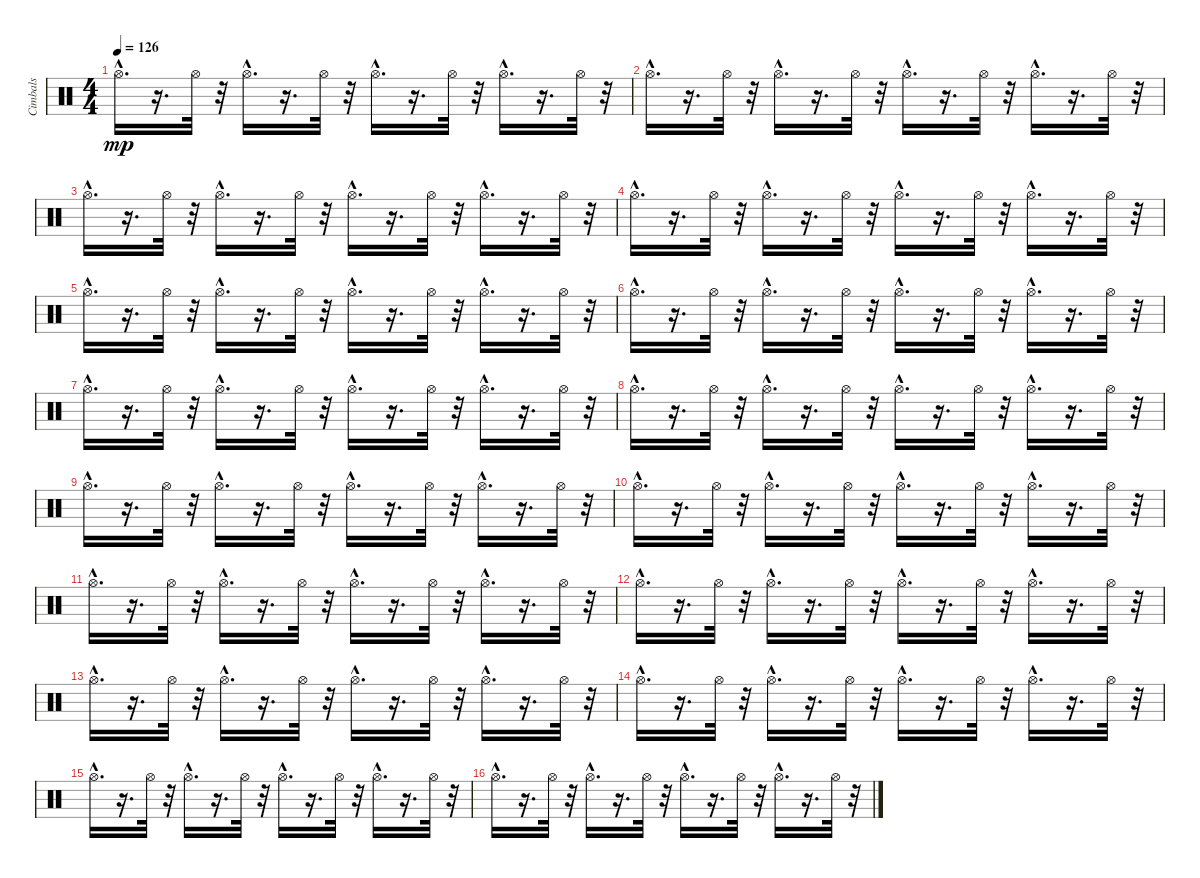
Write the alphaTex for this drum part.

\track ("Cimbals" "Cimbals") {instrument percussion}
\staff {score}
\articulation defaults
\ts (4 4)
\tempo 126
\clef neutral
\ks c "Hi-Hat (open)"{hac}.16{d dy mp}
r.16{d} "Hi-Hat (open)".32 r.32 "Hi-Hat (open)"{hac}.16{d} r.16{d} "Hi-Hat (open)".32 r.32 "Hi-Hat (open)"{hac}.16{d} r.16{d} "Hi-Hat (open)".32 r.32 "Hi-Hat (open)"{hac}.16{d} r.16{d} "Hi-Hat (open)".32 r.32 |
"Hi-Hat (open)"{hac}.16{d} r.16{d} "Hi-Hat (open)".32 r.32 "Hi-Hat (open)"{hac}.16{d} r.16{d} "Hi-Hat (open)".32 r.32 "Hi-Hat (open)"{hac}.16{d} r.16{d} "Hi-Hat (open)".32 r.32 "Hi-Hat (open)"{hac}.16{d} r.16{d} "Hi-Hat (open)".32 r.32 |
"Hi-Hat (open)"{hac}.16{d} r.16{d} "Hi-Hat (open)".32 r.32 "Hi-Hat (open)"{hac}.16{d} r.16{d} "Hi-Hat (open)".32 r.32 "Hi-Hat (open)"{hac}.16{d} r.16{d} "Hi-Hat (open)".32 r.32 "Hi-Hat (open)"{hac}.16{d} r.16{d} "Hi-Hat (open)".32 r.32 |
"Hi-Hat (open)"{hac}.16{d} r.16{d} "Hi-Hat (open)".32 r.32 "Hi-Hat (open)"{hac}.16{d} r.16{d} "Hi-Hat (open)".32 r.32 "Hi-Hat (open)"{hac}.16{d} r.16{d} "Hi-Hat (open)".32 r.32 "Hi-Hat (open)"{hac}.16{d} r.16{d} "Hi-Hat (open)".32 r.32 |
"Hi-Hat (open)"{hac}.16{d} r.16{d} "Hi-Hat (open)".32 r.32 "Hi-Hat (open)"{hac}.16{d} r.16{d} "Hi-Hat (open)".32 r.32 "Hi-Hat (open)"{hac}.16{d} r.16{d} "Hi-Hat (open)".32 r.32 "Hi-Hat (open)"{hac}.16{d} r.16{d} "Hi-Hat (open)".32 r.32 |
"Hi-Hat (open)"{hac}.16{d} r.16{d} "Hi-Hat (open)".32 r.32 "Hi-Hat (open)"{hac}.16{d} r.16{d} "Hi-Hat (open)".32 r.32 "Hi-Hat (open)"{hac}.16{d} r.16{d} "Hi-Hat (open)".32 r.32 "Hi-Hat (open)"{hac}.16{d} r.16{d} "Hi-Hat (open)".32 r.32 |
"Hi-Hat (open)"{hac}.16{d} r.16{d} "Hi-Hat (open)".32 r.32 "Hi-Hat (open)"{hac}.16{d} r.16{d} "Hi-Hat (open)".32 r.32 "Hi-Hat (open)"{hac}.16{d} r.16{d} "Hi-Hat (open)".32 r.32 "Hi-Hat (open)"{hac}.16{d} r.16{d} "Hi-Hat (open)".32 r.32 |
"Hi-Hat (open)"{hac}.16{d} r.16{d} "Hi-Hat (open)".32 r.32 "Hi-Hat (open)"{hac}.16{d} r.16{d} "Hi-Hat (open)".32 r.32 "Hi-Hat (open)"{hac}.16{d} r.16{d} "Hi-Hat (open)".32 r.32 "Hi-Hat (open)"{hac}.16{d} r.16{d} "Hi-Hat (open)".32 r.32 |
"Hi-Hat (open)"{hac}.16{d} r.16{d} "Hi-Hat (open)".32 r.32 "Hi-Hat (open)"{hac}.16{d} r.16{d} "Hi-Hat (open)".32 r.32 "Hi-Hat (open)"{hac}.16{d} r.16{d} "Hi-Hat (open)".32 r.32 "Hi-Hat (open)"{hac}.16{d} r.16{d} "Hi-Hat (open)".32 r.32 |
"Hi-Hat (open)"{hac}.16{d} r.16{d} "Hi-Hat (open)".32 r.32 "Hi-Hat (open)"{hac}.16{d} r.16{d} "Hi-Hat (open)".32 r.32 "Hi-Hat (open)"{hac}.16{d} r.16{d} "Hi-Hat (open)".32 r.32 "Hi-Hat (open)"{hac}.16{d} r.16{d} "Hi-Hat (open)".32 r.32 |
"Hi-Hat (open)"{hac}.16{d} r.16{d} "Hi-Hat (open)".32 r.32 "Hi-Hat (open)"{hac}.16{d} r.16{d} "Hi-Hat (open)".32 r.32 "Hi-Hat (open)"{hac}.16{d} r.16{d} "Hi-Hat (open)".32 r.32 "Hi-Hat (open)"{hac}.16{d} r.16{d} "Hi-Hat (open)".32 r.32 |
"Hi-Hat (open)"{hac}.16{d} r.16{d} "Hi-Hat (open)".32 r.32 "Hi-Hat (open)"{hac}.16{d} r.16{d} "Hi-Hat (open)".32 r.32 "Hi-Hat (open)"{hac}.16{d} r.16{d} "Hi-Hat (open)".32 r.32 "Hi-Hat (open)"{hac}.16{d} r.16{d} "Hi-Hat (open)".32 r.32 |
"Hi-Hat (open)"{hac}.16{d} r.16{d} "Hi-Hat (open)".32 r.32 "Hi-Hat (open)"{hac}.16{d} r.16{d} "Hi-Hat (open)".32 r.32 "Hi-Hat (open)"{hac}.16{d} r.16{d} "Hi-Hat (open)".32 r.32 "Hi-Hat (open)"{hac}.16{d} r.16{d} "Hi-Hat (open)".32 r.32 |
"Hi-Hat (open)"{hac}.16{d} r.16{d} "Hi-Hat (open)".32 r.32 "Hi-Hat (open)"{hac}.16{d} r.16{d} "Hi-Hat (open)".32 r.32 "Hi-Hat (open)"{hac}.16{d} r.16{d} "Hi-Hat (open)".32 r.32 "Hi-Hat (open)"{hac}.16{d} r.16{d} "Hi-Hat (open)".32 r.32 |
"Hi-Hat (open)"{hac}.16{d} r.16{d} "Hi-Hat (open)".32 r.32 "Hi-Hat (open)"{hac}.16{d} r.16{d} "Hi-Hat (open)".32 r.32 "Hi-Hat (open)"{hac}.16{d} r.16{d} "Hi-Hat (open)".32 r.32 "Hi-Hat (open)"{hac}.16{d} r.16{d} "Hi-Hat (open)".32 r.32 |
"Hi-Hat (open)"{hac}.16{d} r.16{d} "Hi-Hat (open)".32 r.32 "Hi-Hat (open)"{hac}.16{d} r.16{d} "Hi-Hat (open)".32 r.32 "Hi-Hat (open)"{hac}.16{d} r.16{d} "Hi-Hat (open)".32 r.32 "Hi-Hat (open)"{hac}.16{d} r.16{d} "Hi-Hat (open)".32 r.32
